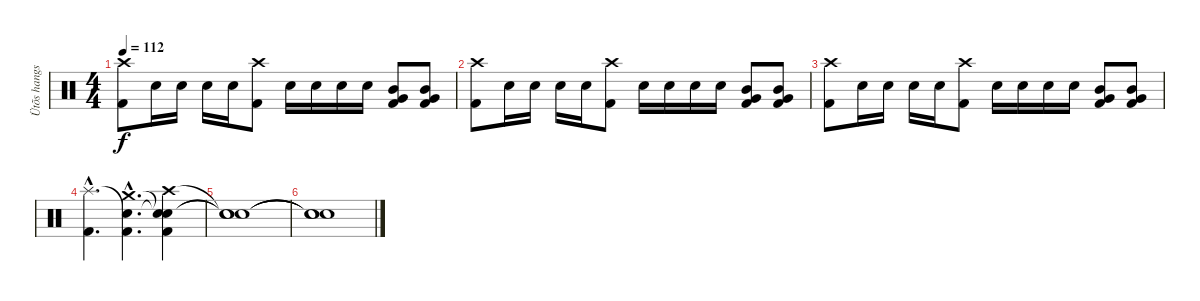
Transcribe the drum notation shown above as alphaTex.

\track ("Ütõs hangszer" "Ütõs hangs") {instrument percussion}
\staff {score}
\articulation defaults
\ts (4 4)
\tempo 112
\clef neutral
\ks c
("Crash high (hit)" "Kick (hit) 2").8{dy f} "Electric Snare (hit)".16 "Electric Snare (hit)".16 "Electric Snare (hit)".16 "Electric Snare (hit)".16 ("Crash high (hit)" "Kick (hit) 2").8 "Electric Snare (hit)".16 "Electric Snare (hit)".16 "Electric Snare (hit)".16 "Electric Snare (hit)".16 ("Mid Tom (hit)" "Very Low Tom (hit)" "Kick (hit) 2").8 ("Mid Tom (hit)" "Very Low Tom (hit)" "Kick (hit) 2").8 |
("Crash high (hit)" "Kick (hit) 2").8 "Electric Snare (hit)".16 "Electric Snare (hit)".16 "Electric Snare (hit)".16 "Electric Snare (hit)".16 ("Crash high (hit)" "Kick (hit) 2").8 "Electric Snare (hit)".16 "Electric Snare (hit)".16 "Electric Snare (hit)".16 "Electric Snare (hit)".16 ("Mid Tom (hit)" "Very Low Tom (hit)" "Kick (hit) 2").8 ("Mid Tom (hit)" "Very Low Tom (hit)" "Kick (hit) 2").8 |
("Crash high (hit)" "Kick (hit) 2").8 "Electric Snare (hit)".16 "Electric Snare (hit)".16 "Electric Snare (hit)".16 "Electric Snare (hit)".16 ("Crash high (hit)" "Kick (hit) 2").8 "Electric Snare (hit)".16 "Electric Snare (hit)".16 "Electric Snare (hit)".16 "Electric Snare (hit)".16 ("Mid Tom (hit)" "Very Low Tom (hit)" "Kick (hit) 2").8 ("Mid Tom (hit)" "Very Low Tom (hit)" "Kick (hit) 2").8 |
("Splash (hit)"{hac} "Kick (hit) 2"{hac}).4{d} ("Snare (hit)"{hac t} "Crash medium (hit)"{hac} "Kick (hit) 2"{hac}).4{d} ("Snare (hit)"{t} "Snare (hit)"{t} "Crash high (hit)" "Kick (hit) 2").4 |
("Snare (hit)"{t} "Snare (hit)"{t} "Snare (hit)"{t}).1 |
("Snare (hit)"{t} "Snare (hit)"{t} "Snare (hit)"{t}).1
